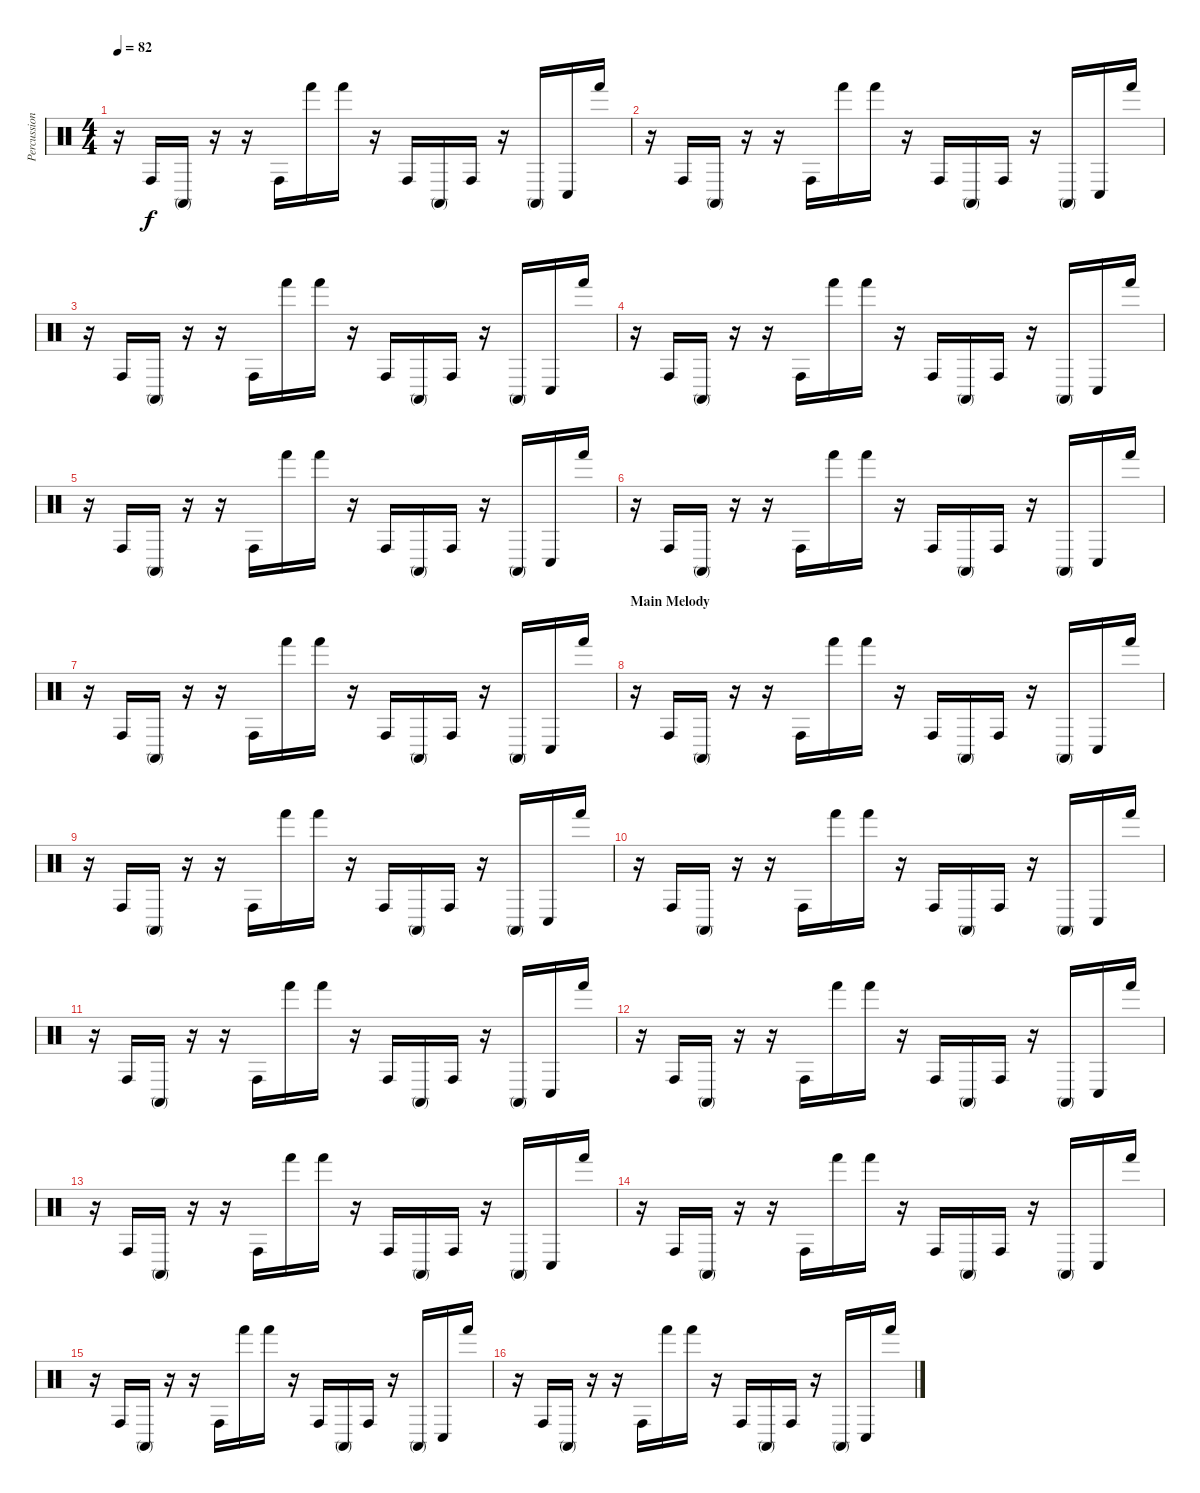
\track ("Percussion" "Percussion") {instrument percussion}
\staff {score}
\articulation defaults
\ts (4 4)
\tempo 82
\clef neutral
\ks c
r.16{dy f} "Conga high (hit)".16 "Conga high (mute)".16 r.16 r.16 "Conga high (hit)".16 "Hand (hit)".16 "Hand (hit)".16 r.16 "Conga high (hit)".16 "Conga high (mute)".16 "Conga high (hit)".16 r.16 "Conga high (mute)".16 "Conga low (hit)".16 "Hand (hit)".16 |
r.16 "Conga high (hit)".16 "Conga high (mute)".16 r.16 r.16 "Conga high (hit)".16 "Hand (hit)".16 "Hand (hit)".16 r.16 "Conga high (hit)".16 "Conga high (mute)".16 "Conga high (hit)".16 r.16 "Conga high (mute)".16 "Conga low (hit)".16 "Hand (hit)".16 |
r.16 "Conga high (hit)".16 "Conga high (mute)".16 r.16 r.16 "Conga high (hit)".16 "Hand (hit)".16 "Hand (hit)".16 r.16 "Conga high (hit)".16 "Conga high (mute)".16 "Conga high (hit)".16 r.16 "Conga high (mute)".16 "Conga low (hit)".16 "Hand (hit)".16 |
r.16 "Conga high (hit)".16 "Conga high (mute)".16 r.16 r.16 "Conga high (hit)".16 "Hand (hit)".16 "Hand (hit)".16 r.16 "Conga high (hit)".16 "Conga high (mute)".16 "Conga high (hit)".16 r.16 "Conga high (mute)".16 "Conga low (hit)".16 "Hand (hit)".16 |
r.16 "Conga high (hit)".16 "Conga high (mute)".16 r.16 r.16 "Conga high (hit)".16 "Hand (hit)".16 "Hand (hit)".16 r.16 "Conga high (hit)".16 "Conga high (mute)".16 "Conga high (hit)".16 r.16 "Conga high (mute)".16 "Conga low (hit)".16 "Hand (hit)".16 |
r.16 "Conga high (hit)".16 "Conga high (mute)".16 r.16 r.16 "Conga high (hit)".16 "Hand (hit)".16 "Hand (hit)".16 r.16 "Conga high (hit)".16 "Conga high (mute)".16 "Conga high (hit)".16 r.16 "Conga high (mute)".16 "Conga low (hit)".16 "Hand (hit)".16 |
r.16 "Conga high (hit)".16 "Conga high (mute)".16 r.16 r.16 "Conga high (hit)".16 "Hand (hit)".16 "Hand (hit)".16 r.16 "Conga high (hit)".16 "Conga high (mute)".16 "Conga high (hit)".16 r.16 "Conga high (mute)".16 "Conga low (hit)".16 "Hand (hit)".16 |
\section ("" "Main Melody")
r.16 "Conga high (hit)".16 "Conga high (mute)".16 r.16 r.16 "Conga high (hit)".16 "Hand (hit)".16 "Hand (hit)".16 r.16 "Conga high (hit)".16 "Conga high (mute)".16 "Conga high (hit)".16 r.16 "Conga high (mute)".16 "Conga low (hit)".16 "Hand (hit)".16 |
r.16 "Conga high (hit)".16 "Conga high (mute)".16 r.16 r.16 "Conga high (hit)".16 "Hand (hit)".16 "Hand (hit)".16 r.16 "Conga high (hit)".16 "Conga high (mute)".16 "Conga high (hit)".16 r.16 "Conga high (mute)".16 "Conga low (hit)".16 "Hand (hit)".16 |
r.16 "Conga high (hit)".16 "Conga high (mute)".16 r.16 r.16 "Conga high (hit)".16 "Hand (hit)".16 "Hand (hit)".16 r.16 "Conga high (hit)".16 "Conga high (mute)".16 "Conga high (hit)".16 r.16 "Conga high (mute)".16 "Conga low (hit)".16 "Hand (hit)".16 |
r.16 "Conga high (hit)".16 "Conga high (mute)".16 r.16 r.16 "Conga high (hit)".16 "Hand (hit)".16 "Hand (hit)".16 r.16 "Conga high (hit)".16 "Conga high (mute)".16 "Conga high (hit)".16 r.16 "Conga high (mute)".16 "Conga low (hit)".16 "Hand (hit)".16 |
r.16 "Conga high (hit)".16 "Conga high (mute)".16 r.16 r.16 "Conga high (hit)".16 "Hand (hit)".16 "Hand (hit)".16 r.16 "Conga high (hit)".16 "Conga high (mute)".16 "Conga high (hit)".16 r.16 "Conga high (mute)".16 "Conga low (hit)".16 "Hand (hit)".16 |
r.16 "Conga high (hit)".16 "Conga high (mute)".16 r.16 r.16 "Conga high (hit)".16 "Hand (hit)".16 "Hand (hit)".16 r.16 "Conga high (hit)".16 "Conga high (mute)".16 "Conga high (hit)".16 r.16 "Conga high (mute)".16 "Conga low (hit)".16 "Hand (hit)".16 |
r.16 "Conga high (hit)".16 "Conga high (mute)".16 r.16 r.16 "Conga high (hit)".16 "Hand (hit)".16 "Hand (hit)".16 r.16 "Conga high (hit)".16 "Conga high (mute)".16 "Conga high (hit)".16 r.16 "Conga high (mute)".16 "Conga low (hit)".16 "Hand (hit)".16 |
r.16 "Conga high (hit)".16 "Conga high (mute)".16 r.16 r.16 "Conga high (hit)".16 "Hand (hit)".16 "Hand (hit)".16 r.16 "Conga high (hit)".16 "Conga high (mute)".16 "Conga high (hit)".16 r.16 "Conga high (mute)".16 "Conga low (hit)".16 "Hand (hit)".16 |
r.16 "Conga high (hit)".16 "Conga high (mute)".16 r.16 r.16 "Conga high (hit)".16 "Hand (hit)".16 "Hand (hit)".16 r.16 "Conga high (hit)".16 "Conga high (mute)".16 "Conga high (hit)".16 r.16 "Conga high (mute)".16 "Conga low (hit)".16 "Hand (hit)".16
